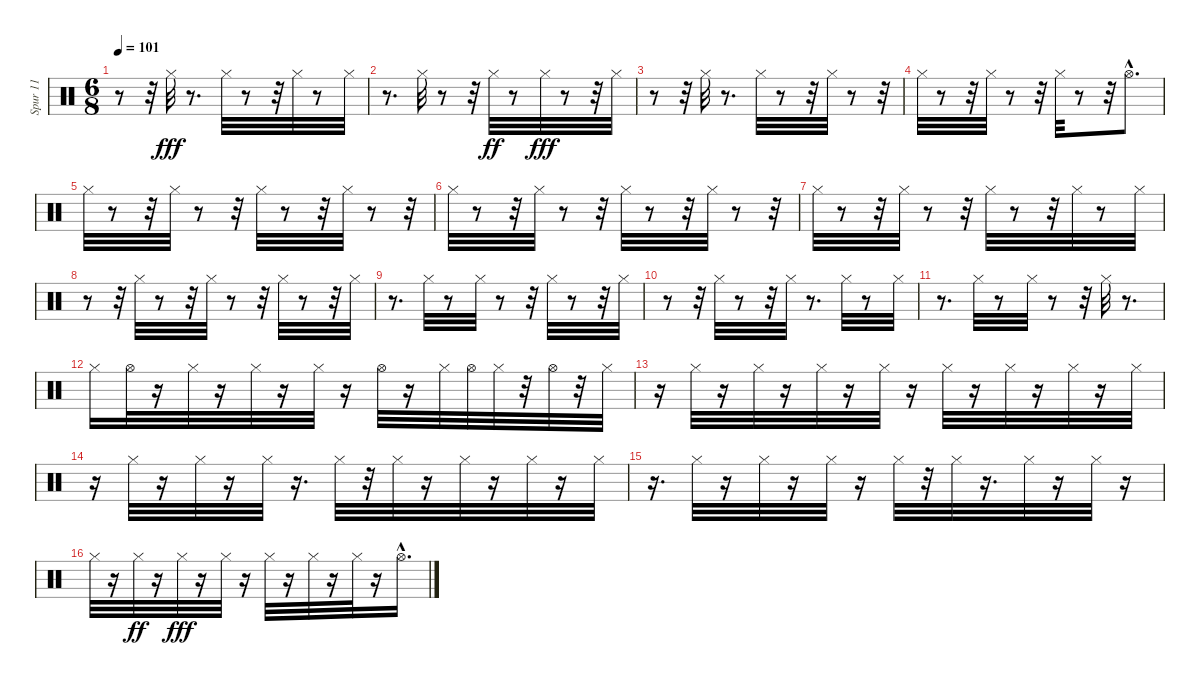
\track ("Spur 11" "Spur 11") {instrument percussion}
\staff {score}
\articulation defaults
\ts (6 8)
\tempo 101
\clef neutral
\ks c
r.8{dy fff} r.32 "Hi-Hat (closed)".32 r.8{d} "Hi-Hat (closed)".32 r.8 r.32 "Hi-Hat (closed)".32 r.8 "Hi-Hat (closed)".32 |
r.8{d} "Hi-Hat (closed)".32 r.8 r.32 "Hi-Hat (closed)".32{dy ff} r.8 "Hi-Hat (closed)".32{dy fff} r.8 r.32 "Hi-Hat (closed)".32 |
r.8 r.32 "Hi-Hat (closed)".32 r.8{d} "Hi-Hat (closed)".32 r.8 r.32 "Hi-Hat (closed)".32 r.8 r.32 |
"Hi-Hat (closed)".32 r.8 r.32 "Hi-Hat (closed)".32 r.8 r.32 "Hi-Hat (closed)".32 r.8 r.32 "Hi-Hat (open)"{hac}.8{d} |
"Hi-Hat (closed)".32 r.8 r.32 "Hi-Hat (closed)".32 r.8 r.32 "Hi-Hat (closed)".32 r.8 r.32 "Hi-Hat (closed)".32 r.8 r.32 |
"Hi-Hat (closed)".32 r.8 r.32 "Hi-Hat (closed)".32 r.8 r.32 "Hi-Hat (closed)".32 r.8 r.32 "Hi-Hat (closed)".32 r.8 r.32 |
"Hi-Hat (closed)".32 r.8 r.32 "Hi-Hat (closed)".32 r.8 r.32 "Hi-Hat (closed)".32 r.8 r.32 "Hi-Hat (closed)".32 r.8 "Hi-Hat (closed)".32 |
r.8 r.32 "Hi-Hat (closed)".32 r.8 r.32 "Hi-Hat (closed)".32 r.8 r.32 "Hi-Hat (closed)".32 r.8 r.32 "Hi-Hat (closed)".32 |
r.8{d} "Hi-Hat (closed)".32 r.8 "Hi-Hat (closed)".32 r.8 r.32 "Hi-Hat (closed)".32 r.8 r.32 "Hi-Hat (closed)".32 |
r.8 r.32 "Hi-Hat (closed)".32 r.8 r.32 "Hi-Hat (closed)".32 r.8{d} "Hi-Hat (closed)".32 r.8 "Hi-Hat (closed)".32 |
r.8{d} "Hi-Hat (closed)".32 r.8 "Hi-Hat (closed)".32 r.8 r.32 "Hi-Hat (closed)".32 r.8{d} |
"Hi-Hat (closed)".16 "Hi-Hat (open)".32 r.16 "Hi-Hat (closed)".32 r.16 "Hi-Hat (closed)".32 r.16 "Hi-Hat (closed)".32 r.16 "Hi-Hat (open)".32 r.16 "Hi-Hat (closed)".32 "Hi-Hat (open)".32 "Hi-Hat (closed)".32 r.32 "Hi-Hat (open)".32 r.32 "Hi-Hat (closed)".32 |
r.16 "Hi-Hat (closed)".32 r.16 "Hi-Hat (closed)".32 r.16 "Hi-Hat (closed)".32 r.16 "Hi-Hat (closed)".32 r.16 "Hi-Hat (closed)".32 r.16 "Hi-Hat (closed)".32 r.16 "Hi-Hat (closed)".32 r.16 "Hi-Hat (closed)".32 |
r.16 "Hi-Hat (closed)".32 r.16 "Hi-Hat (closed)".32 r.16 "Hi-Hat (closed)".32 r.16{d} "Hi-Hat (closed)".32 r.32 "Hi-Hat (closed)".32 r.16 "Hi-Hat (closed)".32 r.16 "Hi-Hat (closed)".32 r.16 "Hi-Hat (closed)".32 |
r.16{d} "Hi-Hat (closed)".32 r.16 "Hi-Hat (closed)".32 r.16 "Hi-Hat (closed)".32 r.16 "Hi-Hat (closed)".32 r.32 "Hi-Hat (closed)".32 r.16{d} "Hi-Hat (closed)".32 r.16 "Hi-Hat (closed)".32 r.16 |
"Hi-Hat (closed)".32 r.16 "Hi-Hat (closed)".32{dy ff} r.16 "Hi-Hat (closed)".32{dy fff} r.16 "Hi-Hat (closed)".32 r.16 "Hi-Hat (closed)".32 r.16 "Hi-Hat (closed)".32 r.16 "Hi-Hat (closed)".32 r.16 "Hi-Hat (open)"{hac}.16{d}
